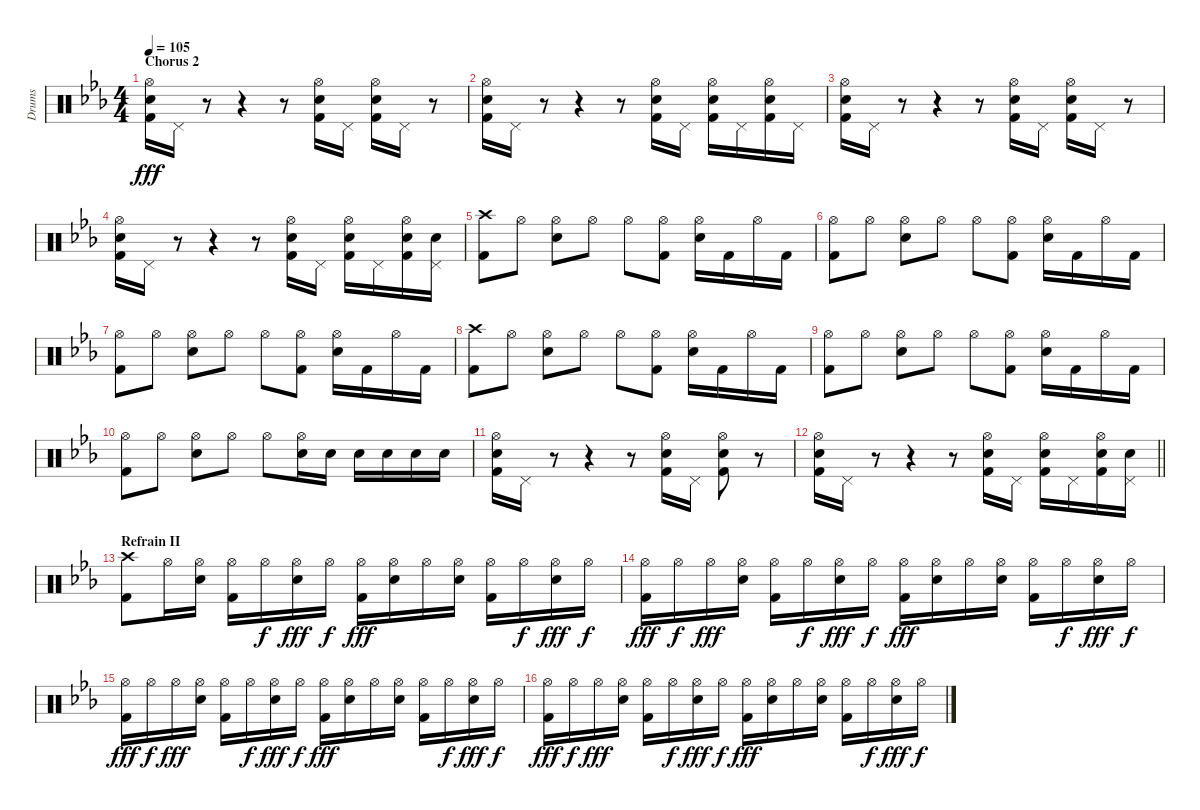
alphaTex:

\track ("Drums" "Drums") {instrument percussion}
\staff {score}
\articulation defaults
\ts (4 4)
\section ("" "Chorus 2")
\tempo 105
\clef neutral
\ks eb
("Hi-Hat (open)" "Snare (hit) 2" "Kick (hit) 2").16{dy fff} "Pedal Hi-Hat (hit)".16 r.8 r.4 r.8 ("Hi-Hat (open)" "Snare (hit) 2" "Kick (hit) 2").16 "Pedal Hi-Hat (hit)".16 ("Hi-Hat (open)" "Snare (hit) 2" "Kick (hit) 2").16 "Pedal Hi-Hat (hit)".16 r.8 |
("Hi-Hat (open)" "Snare (hit) 2" "Kick (hit) 2").16 "Pedal Hi-Hat (hit)".16 r.8 r.4 r.8 ("Hi-Hat (open)" "Snare (hit) 2" "Kick (hit) 2").16 "Pedal Hi-Hat (hit)".16 ("Hi-Hat (open)" "Snare (hit) 2" "Kick (hit) 2").16 "Pedal Hi-Hat (hit)".16 ("Hi-Hat (open)" "Snare (hit) 2" "Kick (hit) 2").16 "Pedal Hi-Hat (hit)".16 |
("Hi-Hat (open)" "Snare (hit) 2" "Kick (hit) 2").16 "Pedal Hi-Hat (hit)".16 r.8 r.4 r.8 ("Hi-Hat (open)" "Snare (hit) 2" "Kick (hit) 2").16 "Pedal Hi-Hat (hit)".16 ("Hi-Hat (open)" "Snare (hit) 2" "Kick (hit) 2").16 "Pedal Hi-Hat (hit)".16 r.8 |
("Hi-Hat (open)" "Snare (hit) 2" "Kick (hit) 2").16 "Pedal Hi-Hat (hit)".16 r.8 r.4 r.8 ("Hi-Hat (open)" "Snare (hit) 2" "Kick (hit) 2").16 "Pedal Hi-Hat (hit)".16 ("Hi-Hat (open)" "Snare (hit) 2" "Kick (hit) 2").16 "Pedal Hi-Hat (hit)".16 ("Hi-Hat (open)" "Snare (hit) 2" "Kick (hit) 2").16 ("Pedal Hi-Hat (hit)" "Snare (hit) 2").16 |
("Crash high (hit)" "Kick (hit) 2").8 "Hi-Hat (open)".8 ("Hi-Hat (open)" "Snare (hit) 2").8 "Hi-Hat (open)".8 "Hi-Hat (open)".8 ("Hi-Hat (open)" "Kick (hit) 2").8 ("Hi-Hat (open)" "Snare (hit) 2").16 "Kick (hit) 2".16 "Hi-Hat (open)".16 "Kick (hit) 2".16 |
("Hi-Hat (open)" "Kick (hit) 2").8 "Hi-Hat (open)".8 ("Hi-Hat (open)" "Snare (hit) 2").8 "Hi-Hat (open)".8 "Hi-Hat (open)".8 ("Hi-Hat (open)" "Kick (hit) 2").8 ("Hi-Hat (open)" "Snare (hit) 2").16 "Kick (hit) 2".16 "Hi-Hat (open)".16 "Kick (hit) 2".16 |
("Hi-Hat (open)" "Kick (hit) 2").8 "Hi-Hat (open)".8 ("Hi-Hat (open)" "Snare (hit) 2").8 "Hi-Hat (open)".8 "Hi-Hat (open)".8 ("Hi-Hat (open)" "Kick (hit) 2").8 ("Hi-Hat (open)" "Snare (hit) 2").16 "Kick (hit) 2".16 "Hi-Hat (open)".16 "Kick (hit) 2".16 |
("Crash high (hit)" "Kick (hit) 2").8 "Hi-Hat (open)".8 ("Hi-Hat (open)" "Snare (hit) 2").8 "Hi-Hat (open)".8 "Hi-Hat (open)".8 ("Hi-Hat (open)" "Kick (hit) 2").8 ("Hi-Hat (open)" "Snare (hit) 2").16 "Kick (hit) 2".16 "Hi-Hat (open)".16 "Kick (hit) 2".16 |
("Hi-Hat (open)" "Kick (hit) 2").8 "Hi-Hat (open)".8 ("Hi-Hat (open)" "Snare (hit) 2").8 "Hi-Hat (open)".8 "Hi-Hat (open)".8 ("Hi-Hat (open)" "Kick (hit) 2").8 ("Hi-Hat (open)" "Snare (hit) 2").16 "Kick (hit) 2".16 "Hi-Hat (open)".16 "Kick (hit) 2".16 |
("Hi-Hat (open)" "Kick (hit) 2").8 "Hi-Hat (open)".8 ("Hi-Hat (open)" "Snare (hit) 2").8 "Hi-Hat (open)".8 "Hi-Hat (open)".8 ("Hi-Hat (open)" "Snare (hit) 2").16 "Snare (hit) 2".16 "Snare (hit) 2".16 "Snare (hit) 2".16 "Snare (hit) 2".16 "Snare (hit) 2".16 |
("Hi-Hat (open)" "Snare (hit) 2" "Kick (hit) 2").16 "Pedal Hi-Hat (hit)".16 r.8 r.4 r.8 ("Hi-Hat (open)" "Snare (hit) 2" "Kick (hit) 2").16 "Pedal Hi-Hat (hit)".16 ("Hi-Hat (open)" "Snare (hit) 2" "Kick (hit) 2").8 r.8 |
\barLineRight lightlight
("Hi-Hat (open)" "Snare (hit) 2" "Kick (hit) 2").16 "Pedal Hi-Hat (hit)".16 r.8 r.4 r.8 ("Hi-Hat (open)" "Snare (hit) 2" "Kick (hit) 2").16 "Pedal Hi-Hat (hit)".16 ("Hi-Hat (open)" "Snare (hit) 2" "Kick (hit) 2").16 "Pedal Hi-Hat (hit)".16 ("Hi-Hat (open)" "Snare (hit) 2" "Kick (hit) 2").16 ("Pedal Hi-Hat (hit)" "Snare (hit) 2").16 |
\section ("" "Refrain II")
("Crash high (hit)" "Kick (hit) 2").8 "Hi-Hat (open)".16 ("Hi-Hat (open)" "Snare (hit) 2").16 ("Hi-Hat (open)" "Kick (hit) 2").16 "Hi-Hat (open)".16{dy f} ("Hi-Hat (open)" "Snare (hit) 2").16{dy fff} "Hi-Hat (open)".16{dy f} ("Hi-Hat (open)" "Kick (hit) 2").16{dy fff} ("Hi-Hat (open)" "Snare (hit) 2").16 "Hi-Hat (open)".16 ("Hi-Hat (open)" "Snare (hit) 2").16 ("Hi-Hat (open)" "Kick (hit) 2").16 "Hi-Hat (open)".16{dy f} ("Hi-Hat (open)" "Snare (hit) 2").16{dy fff} "Hi-Hat (open)".16{dy f} |
("Hi-Hat (open)" "Kick (hit) 2").16{dy fff} "Hi-Hat (open)".16{dy f} "Hi-Hat (open)".16{dy fff} ("Hi-Hat (open)" "Snare (hit) 2").16 ("Hi-Hat (open)" "Kick (hit) 2").16 "Hi-Hat (open)".16{dy f} ("Hi-Hat (open)" "Snare (hit) 2").16{dy fff} "Hi-Hat (open)".16{dy f} ("Hi-Hat (open)" "Kick (hit) 2").16{dy fff} ("Hi-Hat (open)" "Snare (hit) 2").16 "Hi-Hat (open)".16 ("Hi-Hat (open)" "Snare (hit) 2").16 ("Hi-Hat (open)" "Kick (hit) 2").16 "Hi-Hat (open)".16{dy f} ("Hi-Hat (open)" "Snare (hit) 2").16{dy fff} "Hi-Hat (open)".16{dy f} |
("Hi-Hat (open)" "Kick (hit) 2").16{dy fff} "Hi-Hat (open)".16{dy f} "Hi-Hat (open)".16{dy fff} ("Hi-Hat (open)" "Snare (hit) 2").16 ("Hi-Hat (open)" "Kick (hit) 2").16 "Hi-Hat (open)".16{dy f} ("Hi-Hat (open)" "Snare (hit) 2").16{dy fff} "Hi-Hat (open)".16{dy f} ("Hi-Hat (open)" "Kick (hit) 2").16{dy fff} ("Hi-Hat (open)" "Snare (hit) 2").16 "Hi-Hat (open)".16 ("Hi-Hat (open)" "Snare (hit) 2").16 ("Hi-Hat (open)" "Kick (hit) 2").16 "Hi-Hat (open)".16{dy f} ("Hi-Hat (open)" "Snare (hit) 2").16{dy fff} "Hi-Hat (open)".16{dy f} |
("Hi-Hat (open)" "Kick (hit) 2").16{dy fff} "Hi-Hat (open)".16{dy f} "Hi-Hat (open)".16{dy fff} ("Hi-Hat (open)" "Snare (hit) 2").16 ("Hi-Hat (open)" "Kick (hit) 2").16 "Hi-Hat (open)".16{dy f} ("Hi-Hat (open)" "Snare (hit) 2").16{dy fff} "Hi-Hat (open)".16{dy f} ("Hi-Hat (open)" "Kick (hit) 2").16{dy fff} ("Hi-Hat (open)" "Snare (hit) 2").16 "Hi-Hat (open)".16 ("Hi-Hat (open)" "Snare (hit) 2").16 ("Hi-Hat (open)" "Kick (hit) 2").16 "Hi-Hat (open)".16{dy f} ("Hi-Hat (open)" "Snare (hit) 2").16{dy fff} "Hi-Hat (open)".16{dy f}
